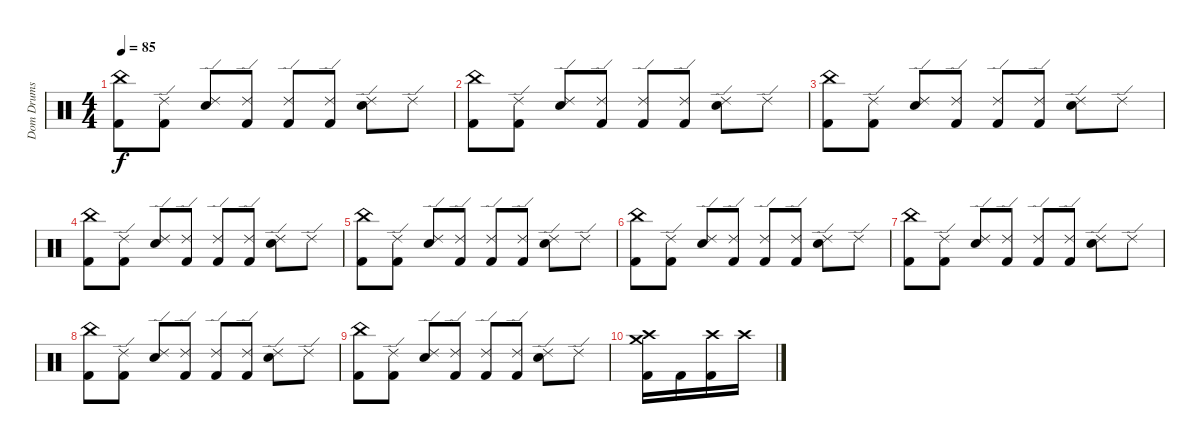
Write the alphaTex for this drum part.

\track ("Dom Drums" "Dom Drums") {instrument percussion}
\staff {score}
\articulation defaults
\ts (4 4)
\tempo 85
\clef neutral
\ks c
("China (hit)" "Kick (hit) 2").8{dy f} ("Ride (edge) 2" "Kick (hit) 2").8 ("Ride (edge) 2" "Snare (hit) 2").8 ("Ride (edge) 2" "Kick (hit) 2").8 ("Ride (edge) 2" "Kick (hit) 2").8 ("Ride (edge) 2" "Kick (hit) 2").8 ("Ride (edge) 2" "Snare (hit) 2").8 "Ride (edge) 2".8 |
("China (hit)" "Kick (hit) 2").8 ("Ride (edge) 2" "Kick (hit) 2").8 ("Ride (edge) 2" "Snare (hit) 2").8 ("Ride (edge) 2" "Kick (hit) 2").8 ("Ride (edge) 2" "Kick (hit) 2").8 ("Ride (edge) 2" "Kick (hit) 2").8 ("Ride (edge) 2" "Snare (hit) 2").8 "Ride (edge) 2".8 |
("China (hit)" "Kick (hit) 2").8 ("Ride (edge) 2" "Kick (hit) 2").8 ("Ride (edge) 2" "Snare (hit) 2").8 ("Ride (edge) 2" "Kick (hit) 2").8 ("Ride (edge) 2" "Kick (hit) 2").8 ("Ride (edge) 2" "Kick (hit) 2").8 ("Ride (edge) 2" "Snare (hit) 2").8 "Ride (edge) 2".8 |
("China (hit)" "Kick (hit) 2").8 ("Ride (edge) 2" "Kick (hit) 2").8 ("Ride (edge) 2" "Snare (hit) 2").8 ("Ride (edge) 2" "Kick (hit) 2").8 ("Ride (edge) 2" "Kick (hit) 2").8 ("Ride (edge) 2" "Kick (hit) 2").8 ("Ride (edge) 2" "Snare (hit) 2").8 "Ride (edge) 2".8 |
("China (hit)" "Kick (hit) 2").8 ("Ride (edge) 2" "Kick (hit) 2").8 ("Ride (edge) 2" "Snare (hit) 2").8 ("Ride (edge) 2" "Kick (hit) 2").8 ("Ride (edge) 2" "Kick (hit) 2").8 ("Ride (edge) 2" "Kick (hit) 2").8 ("Ride (edge) 2" "Snare (hit) 2").8 "Ride (edge) 2".8 |
("China (hit)" "Kick (hit) 2").8 ("Ride (edge) 2" "Kick (hit) 2").8 ("Ride (edge) 2" "Snare (hit) 2").8 ("Ride (edge) 2" "Kick (hit) 2").8 ("Ride (edge) 2" "Kick (hit) 2").8 ("Ride (edge) 2" "Kick (hit) 2").8 ("Ride (edge) 2" "Snare (hit) 2").8 "Ride (edge) 2".8 |
("China (hit)" "Kick (hit) 2").8 ("Ride (edge) 2" "Kick (hit) 2").8 ("Ride (edge) 2" "Snare (hit) 2").8 ("Ride (edge) 2" "Kick (hit) 2").8 ("Ride (edge) 2" "Kick (hit) 2").8 ("Ride (edge) 2" "Kick (hit) 2").8 ("Ride (edge) 2" "Snare (hit) 2").8 "Ride (edge) 2".8 |
("China (hit)" "Kick (hit) 2").8 ("Ride (edge) 2" "Kick (hit) 2").8 ("Ride (edge) 2" "Snare (hit) 2").8 ("Ride (edge) 2" "Kick (hit) 2").8 ("Ride (edge) 2" "Kick (hit) 2").8 ("Ride (edge) 2" "Kick (hit) 2").8 ("Ride (edge) 2" "Snare (hit) 2").8 "Ride (edge) 2".8 |
("China (hit)" "Kick (hit) 2").8 ("Ride (edge) 2" "Kick (hit) 2").8 ("Ride (edge) 2" "Snare (hit) 2").8 ("Ride (edge) 2" "Kick (hit) 2").8 ("Ride (edge) 2" "Kick (hit) 2").8 ("Ride (edge) 2" "Kick (hit) 2").8 ("Ride (edge) 2" "Snare (hit) 2").8 "Ride (edge) 2".8 |
("Crash medium (hit)" "Crash high (hit)" "Kick (hit) 2").16 "Kick (hit) 2".16 ("Crash high (hit)" "Kick (hit) 2").16 "Crash high (hit)".16
